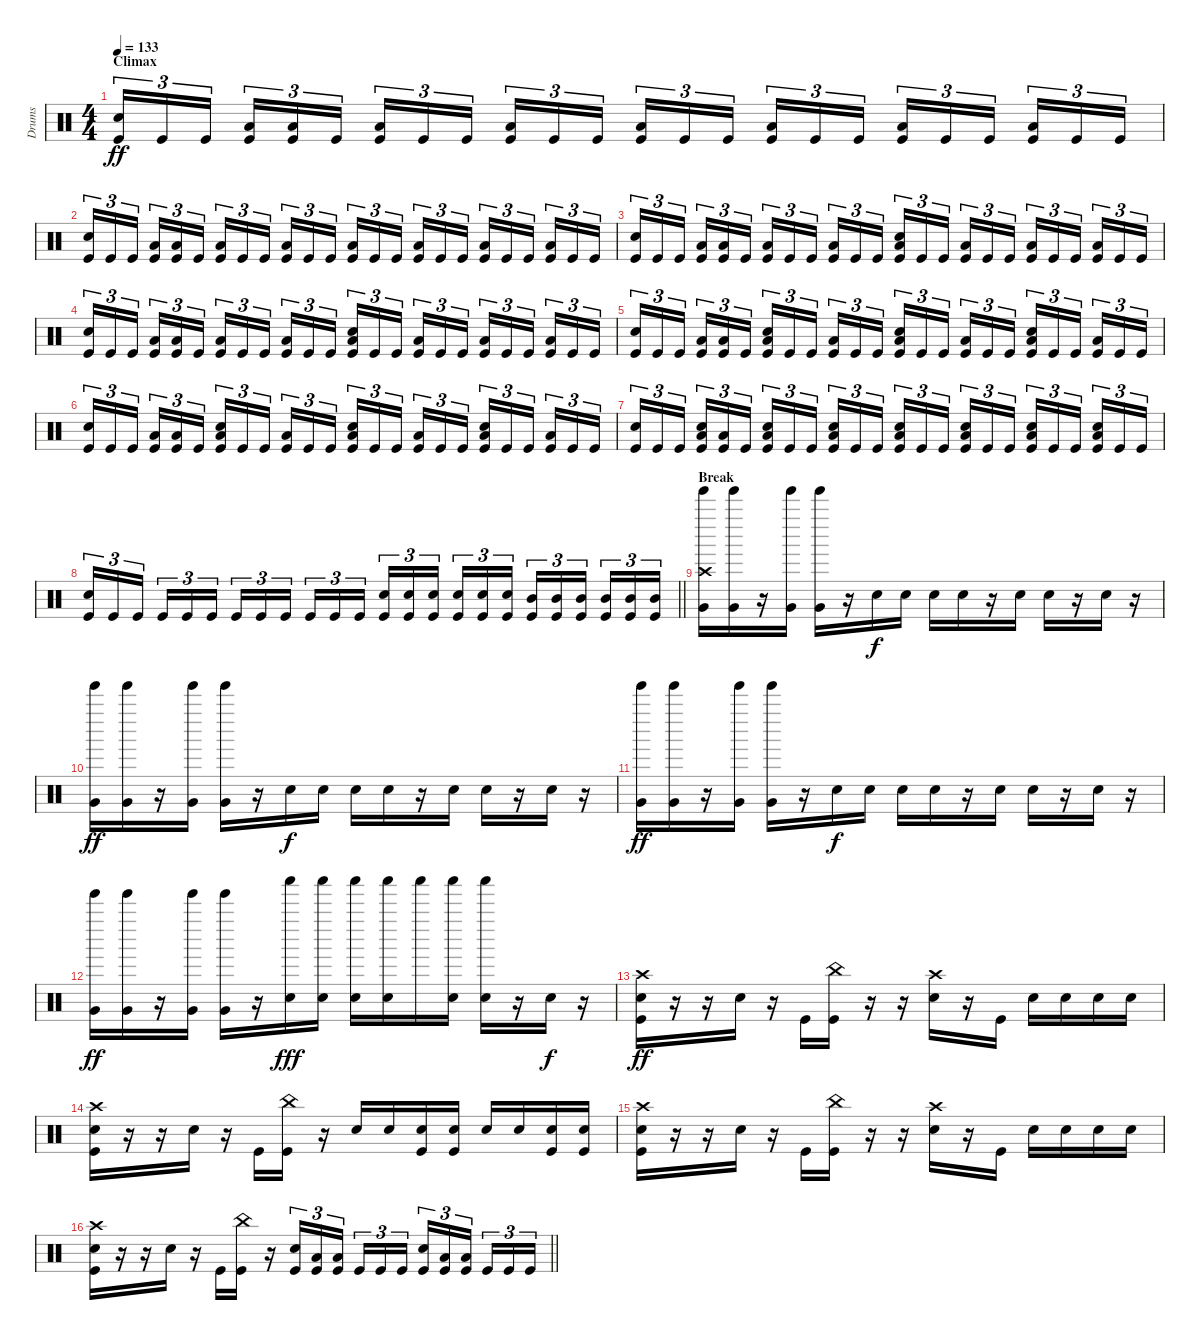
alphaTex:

\track ("Drums" "Drums") {instrument percussion}
\staff {score}
\articulation defaults
\ts (4 4)
\section ("" "Climax")
\tempo 133
\clef neutral
\ks c
("Snare (hit) 2" "Kick (hit)").16{tu (3 2) dy ff} "Kick (hit)".16{tu (3 2)} "Kick (hit)".16{tu (3 2) beam splitsecondary} ("Low Tom (hit)" "Kick (hit)").16{tu (3 2)} ("Low Tom (hit)" "Kick (hit)").16{tu (3 2)} "Kick (hit)".16{tu (3 2)} ("Low Tom (hit)" "Kick (hit)").16{tu (3 2)} "Kick (hit)".16{tu (3 2)} "Kick (hit)".16{tu (3 2) beam splitsecondary} ("Low Tom (hit)" "Kick (hit)").16{tu (3 2)} "Kick (hit)".16{tu (3 2)} "Kick (hit)".16{tu (3 2)} ("Low Tom (hit)" "Kick (hit)").16{tu (3 2)} "Kick (hit)".16{tu (3 2)} "Kick (hit)".16{tu (3 2) beam splitsecondary} ("Low Tom (hit)" "Kick (hit)").16{tu (3 2)} "Kick (hit)".16{tu (3 2)} "Kick (hit)".16{tu (3 2)} ("Low Tom (hit)" "Kick (hit)").16{tu (3 2)} "Kick (hit)".16{tu (3 2)} "Kick (hit)".16{tu (3 2) beam splitsecondary} ("Low Tom (hit)" "Kick (hit)").16{tu (3 2)} "Kick (hit)".16{tu (3 2)} "Kick (hit)".16{tu (3 2)} |
("Snare (hit) 2" "Kick (hit)").16{tu (3 2)} "Kick (hit)".16{tu (3 2)} "Kick (hit)".16{tu (3 2) beam splitsecondary} ("Low Tom (hit)" "Kick (hit)").16{tu (3 2)} ("Low Tom (hit)" "Kick (hit)").16{tu (3 2)} "Kick (hit)".16{tu (3 2)} ("Low Tom (hit)" "Kick (hit)").16{tu (3 2)} "Kick (hit)".16{tu (3 2)} "Kick (hit)".16{tu (3 2) beam splitsecondary} ("Low Tom (hit)" "Kick (hit)").16{tu (3 2)} "Kick (hit)".16{tu (3 2)} "Kick (hit)".16{tu (3 2)} ("Low Tom (hit)" "Kick (hit)").16{tu (3 2)} "Kick (hit)".16{tu (3 2)} "Kick (hit)".16{tu (3 2) beam splitsecondary} ("Low Tom (hit)" "Kick (hit)").16{tu (3 2)} "Kick (hit)".16{tu (3 2)} "Kick (hit)".16{tu (3 2)} ("Low Tom (hit)" "Kick (hit)").16{tu (3 2)} "Kick (hit)".16{tu (3 2)} "Kick (hit)".16{tu (3 2) beam splitsecondary} ("Low Tom (hit)" "Kick (hit)").16{tu (3 2)} "Kick (hit)".16{tu (3 2)} "Kick (hit)".16{tu (3 2)} |
("Snare (hit) 2" "Kick (hit)").16{tu (3 2)} "Kick (hit)".16{tu (3 2)} "Kick (hit)".16{tu (3 2) beam splitsecondary} ("Low Tom (hit)" "Kick (hit)").16{tu (3 2)} ("Low Tom (hit)" "Kick (hit)").16{tu (3 2)} "Kick (hit)".16{tu (3 2)} ("Low Tom (hit)" "Kick (hit)").16{tu (3 2)} "Kick (hit)".16{tu (3 2)} "Kick (hit)".16{tu (3 2) beam splitsecondary} ("Low Tom (hit)" "Kick (hit)").16{tu (3 2)} "Kick (hit)".16{tu (3 2)} "Kick (hit)".16{tu (3 2)} ("Snare (hit) 2" "Low Tom (hit)" "Kick (hit)").16{tu (3 2)} "Kick (hit)".16{tu (3 2)} "Kick (hit)".16{tu (3 2) beam splitsecondary} ("Low Tom (hit)" "Kick (hit)").16{tu (3 2)} "Kick (hit)".16{tu (3 2)} "Kick (hit)".16{tu (3 2)} ("Low Tom (hit)" "Kick (hit)").16{tu (3 2)} "Kick (hit)".16{tu (3 2)} "Kick (hit)".16{tu (3 2) beam splitsecondary} ("Low Tom (hit)" "Kick (hit)").16{tu (3 2)} "Kick (hit)".16{tu (3 2)} "Kick (hit)".16{tu (3 2)} |
("Snare (hit) 2" "Kick (hit)").16{tu (3 2)} "Kick (hit)".16{tu (3 2)} "Kick (hit)".16{tu (3 2) beam splitsecondary} ("Low Tom (hit)" "Kick (hit)").16{tu (3 2)} ("Low Tom (hit)" "Kick (hit)").16{tu (3 2)} "Kick (hit)".16{tu (3 2)} ("Low Tom (hit)" "Kick (hit)").16{tu (3 2)} "Kick (hit)".16{tu (3 2)} "Kick (hit)".16{tu (3 2) beam splitsecondary} ("Low Tom (hit)" "Kick (hit)").16{tu (3 2)} "Kick (hit)".16{tu (3 2)} "Kick (hit)".16{tu (3 2)} ("Snare (hit) 2" "Low Tom (hit)" "Kick (hit)").16{tu (3 2)} "Kick (hit)".16{tu (3 2)} "Kick (hit)".16{tu (3 2) beam splitsecondary} ("Low Tom (hit)" "Kick (hit)").16{tu (3 2)} "Kick (hit)".16{tu (3 2)} "Kick (hit)".16{tu (3 2)} ("Low Tom (hit)" "Kick (hit)").16{tu (3 2)} "Kick (hit)".16{tu (3 2)} "Kick (hit)".16{tu (3 2) beam splitsecondary} ("Low Tom (hit)" "Kick (hit)").16{tu (3 2)} "Kick (hit)".16{tu (3 2)} "Kick (hit)".16{tu (3 2)} |
("Snare (hit) 2" "Kick (hit)").16{tu (3 2)} "Kick (hit)".16{tu (3 2)} "Kick (hit)".16{tu (3 2) beam splitsecondary} ("Low Tom (hit)" "Kick (hit)").16{tu (3 2)} ("Low Tom (hit)" "Kick (hit)").16{tu (3 2)} "Kick (hit)".16{tu (3 2)} ("Snare (hit) 2" "Low Tom (hit)" "Kick (hit)").16{tu (3 2)} "Kick (hit)".16{tu (3 2)} "Kick (hit)".16{tu (3 2) beam splitsecondary} ("Low Tom (hit)" "Kick (hit)").16{tu (3 2)} "Kick (hit)".16{tu (3 2)} "Kick (hit)".16{tu (3 2)} ("Snare (hit) 2" "Low Tom (hit)" "Kick (hit)").16{tu (3 2)} "Kick (hit)".16{tu (3 2)} "Kick (hit)".16{tu (3 2) beam splitsecondary} ("Low Tom (hit)" "Kick (hit)").16{tu (3 2)} "Kick (hit)".16{tu (3 2)} "Kick (hit)".16{tu (3 2)} ("Snare (hit) 2" "Low Tom (hit)" "Kick (hit)").16{tu (3 2)} "Kick (hit)".16{tu (3 2)} "Kick (hit)".16{tu (3 2) beam splitsecondary} ("Low Tom (hit)" "Kick (hit)").16{tu (3 2)} "Kick (hit)".16{tu (3 2)} "Kick (hit)".16{tu (3 2)} |
("Snare (hit) 2" "Kick (hit)").16{tu (3 2)} "Kick (hit)".16{tu (3 2)} "Kick (hit)".16{tu (3 2) beam splitsecondary} ("Low Tom (hit)" "Kick (hit)").16{tu (3 2)} ("Low Tom (hit)" "Kick (hit)").16{tu (3 2)} "Kick (hit)".16{tu (3 2)} ("Snare (hit) 2" "Low Tom (hit)" "Kick (hit)").16{tu (3 2)} "Kick (hit)".16{tu (3 2)} "Kick (hit)".16{tu (3 2) beam splitsecondary} ("Low Tom (hit)" "Kick (hit)").16{tu (3 2)} "Kick (hit)".16{tu (3 2)} "Kick (hit)".16{tu (3 2)} ("Snare (hit) 2" "Low Tom (hit)" "Kick (hit)").16{tu (3 2)} "Kick (hit)".16{tu (3 2)} "Kick (hit)".16{tu (3 2) beam splitsecondary} ("Low Tom (hit)" "Kick (hit)").16{tu (3 2)} "Kick (hit)".16{tu (3 2)} "Kick (hit)".16{tu (3 2)} ("Snare (hit) 2" "Low Tom (hit)" "Kick (hit)").16{tu (3 2)} "Kick (hit)".16{tu (3 2)} "Kick (hit)".16{tu (3 2) beam splitsecondary} ("Low Tom (hit)" "Kick (hit)").16{tu (3 2)} "Kick (hit)".16{tu (3 2)} "Kick (hit)".16{tu (3 2)} |
("Snare (hit) 2" "Kick (hit)").16{tu (3 2)} "Kick (hit)".16{tu (3 2)} "Kick (hit)".16{tu (3 2) beam splitsecondary} ("Snare (hit) 2" "Low Tom (hit)" "Kick (hit)").16{tu (3 2)} ("Low Tom (hit)" "Kick (hit)").16{tu (3 2)} "Kick (hit)".16{tu (3 2)} ("Snare (hit) 2" "Low Tom (hit)" "Kick (hit)").16{tu (3 2)} "Kick (hit)".16{tu (3 2)} "Kick (hit)".16{tu (3 2) beam splitsecondary} ("Snare (hit) 2" "Low Tom (hit)" "Kick (hit)").16{tu (3 2)} "Kick (hit)".16{tu (3 2)} "Kick (hit)".16{tu (3 2)} ("Snare (hit) 2" "Low Tom (hit)" "Kick (hit)").16{tu (3 2)} "Kick (hit)".16{tu (3 2)} "Kick (hit)".16{tu (3 2) beam splitsecondary} ("Snare (hit) 2" "Low Tom (hit)" "Kick (hit)").16{tu (3 2)} "Kick (hit)".16{tu (3 2)} "Kick (hit)".16{tu (3 2)} ("Snare (hit) 2" "Low Tom (hit)" "Kick (hit)").16{tu (3 2)} "Kick (hit)".16{tu (3 2)} "Kick (hit)".16{tu (3 2) beam splitsecondary} ("Snare (hit) 2" "Low Tom (hit)" "Kick (hit)").16{tu (3 2)} "Kick (hit)".16{tu (3 2)} "Kick (hit)".16{tu (3 2)} |
\barLineRight lightlight
("Snare (hit) 2" "Kick (hit)").16{tu (3 2)} "Kick (hit)".16{tu (3 2)} "Kick (hit)".16{tu (3 2) beam splitsecondary} "Kick (hit)".16{tu (3 2)} "Kick (hit)".16{tu (3 2)} "Kick (hit)".16{tu (3 2)} "Kick (hit)".16{tu (3 2)} "Kick (hit)".16{tu (3 2)} "Kick (hit)".16{tu (3 2) beam splitsecondary} "Kick (hit)".16{tu (3 2)} "Kick (hit)".16{tu (3 2)} "Kick (hit)".16{tu (3 2)} ("Snare (hit) 2" "Kick (hit)").16{tu (3 2)} ("Snare (hit) 2" "Kick (hit)").16{tu (3 2)} ("Snare (hit) 2" "Kick (hit)").16{tu (3 2) beam splitsecondary} ("Snare (hit) 2" "Kick (hit)").16{tu (3 2)} ("Snare (hit) 2" "Kick (hit)").16{tu (3 2)} ("Snare (hit) 2" "Kick (hit)").16{tu (3 2)} ("Mid Tom (hit)" "Kick (hit)").16{tu (3 2)} ("Mid Tom (hit)" "Kick (hit)").16{tu (3 2)} ("Mid Tom (hit)" "Kick (hit)").16{tu (3 2) beam splitsecondary} ("Mid Tom (hit)" "Kick (hit)").16{tu (3 2)} ("Mid Tom (hit)" "Kick (hit)").16{tu (3 2)} ("Mid Tom (hit)" "Kick (hit)").16{tu (3 2)} |
\section ("" "Break")
("Crash high (hit)" "Tinkle Bell (hit)" "Very Low Tom (hit)").16 ("Tinkle Bell (hit)" "Very Low Tom (hit)").16 r.16 ("Tinkle Bell (hit)" "Very Low Tom (hit)").16 ("Tinkle Bell (hit)" "Very Low Tom (hit)").16 r.16 "Electric Snare (hit)".16{dy f} "Electric Snare (hit)".16 "Electric Snare (hit)".16 "Electric Snare (hit)".16 r.16 "Electric Snare (hit)".16 "Electric Snare (hit)".16 r.16 "Electric Snare (hit)".16 r.16 |
("Tinkle Bell (hit)" "Very Low Tom (hit)").16{dy ff} ("Tinkle Bell (hit)" "Very Low Tom (hit)").16 r.16 ("Tinkle Bell (hit)" "Very Low Tom (hit)").16 ("Tinkle Bell (hit)" "Very Low Tom (hit)").16 r.16 "Electric Snare (hit)".16{dy f} "Electric Snare (hit)".16 "Electric Snare (hit)".16 "Electric Snare (hit)".16 r.16 "Electric Snare (hit)".16 "Electric Snare (hit)".16 r.16 "Electric Snare (hit)".16 r.16 |
("Tinkle Bell (hit)" "Very Low Tom (hit)").16{dy ff} ("Tinkle Bell (hit)" "Very Low Tom (hit)").16 r.16 ("Tinkle Bell (hit)" "Very Low Tom (hit)").16 ("Tinkle Bell (hit)" "Very Low Tom (hit)").16 r.16 "Electric Snare (hit)".16{dy f} "Electric Snare (hit)".16 "Electric Snare (hit)".16 "Electric Snare (hit)".16 r.16 "Electric Snare (hit)".16 "Electric Snare (hit)".16 r.16 "Electric Snare (hit)".16 r.16 |
("Tinkle Bell (hit)" "Very Low Tom (hit)").16{dy ff} ("Tinkle Bell (hit)" "Very Low Tom (hit)").16 r.16 ("Tinkle Bell (hit)" "Very Low Tom (hit)").16 ("Tinkle Bell (hit)" "Very Low Tom (hit)").16 r.16 ("Shaker (hit)" "Electric Snare (hit)").16{dy fff} ("Shaker (hit)" "Electric Snare (hit)").16 ("Shaker (hit)" "Electric Snare (hit)").16 ("Shaker (hit)" "Electric Snare (hit)").16 "Shaker (hit)".16 ("Shaker (hit)" "Electric Snare (hit)").16 ("Shaker (hit)" "Electric Snare (hit)").16 r.16 "Electric Snare (hit)".16{dy f} r.16 |
("Crash high (hit)" "Snare (hit) 2" "Kick (hit)").16{dy ff} r.16 r.16 "Snare (hit) 2".16 r.16 "Kick (hit)".16 ("China (hit)" "Kick (hit)").16 r.16 r.16 ("Crash high (hit)" "Snare (hit) 2").16 r.16 "Kick (hit)".16 "Snare (hit) 2".16 "Snare (hit) 2".16 "Snare (hit) 2".16 "Snare (hit) 2".16 |
("Crash high (hit)" "Snare (hit) 2" "Kick (hit)").16 r.16 r.16 "Snare (hit) 2".16 r.16 "Kick (hit)".16 ("China (hit)" "Kick (hit)").16 r.16 "Snare (hit) 2".16 "Snare (hit) 2".16 ("Snare (hit) 2" "Kick (hit)").16 ("Snare (hit) 2" "Kick (hit)").16 "Snare (hit) 2".16 "Snare (hit) 2".16 ("Snare (hit) 2" "Kick (hit)").16 ("Snare (hit) 2" "Kick (hit)").16 |
("Crash high (hit)" "Snare (hit) 2" "Kick (hit)").16 r.16 r.16 "Snare (hit) 2".16 r.16 "Kick (hit)".16 ("China (hit)" "Kick (hit)").16 r.16 r.16 ("Crash high (hit)" "Snare (hit) 2").16 r.16 "Kick (hit)".16 "Snare (hit) 2".16 "Snare (hit) 2".16 "Snare (hit) 2".16 "Snare (hit) 2".16 |
\barLineRight lightlight
("Crash high (hit)" "Snare (hit) 2" "Kick (hit)").16 r.16 r.16 "Snare (hit) 2".16 r.16 "Kick (hit)".16 ("China (hit)" "Kick (hit)").16 r.16 ("Snare (hit) 2" "Kick (hit)").16{tu (3 2)} ("Low Tom (hit)" "Kick (hit)").16{tu (3 2)} ("Low Tom (hit)" "Kick (hit)").16{tu (3 2) beam splitsecondary} "Kick (hit)".16{tu (3 2)} "Kick (hit)".16{tu (3 2)} "Kick (hit)".16{tu (3 2)} ("Snare (hit) 2" "Kick (hit)").16{tu (3 2)} ("Low Tom (hit)" "Kick (hit)").16{tu (3 2)} ("Low Tom (hit)" "Kick (hit)").16{tu (3 2) beam splitsecondary} "Kick (hit)".16{tu (3 2)} "Kick (hit)".16{tu (3 2)} "Kick (hit)".16{tu (3 2)}
